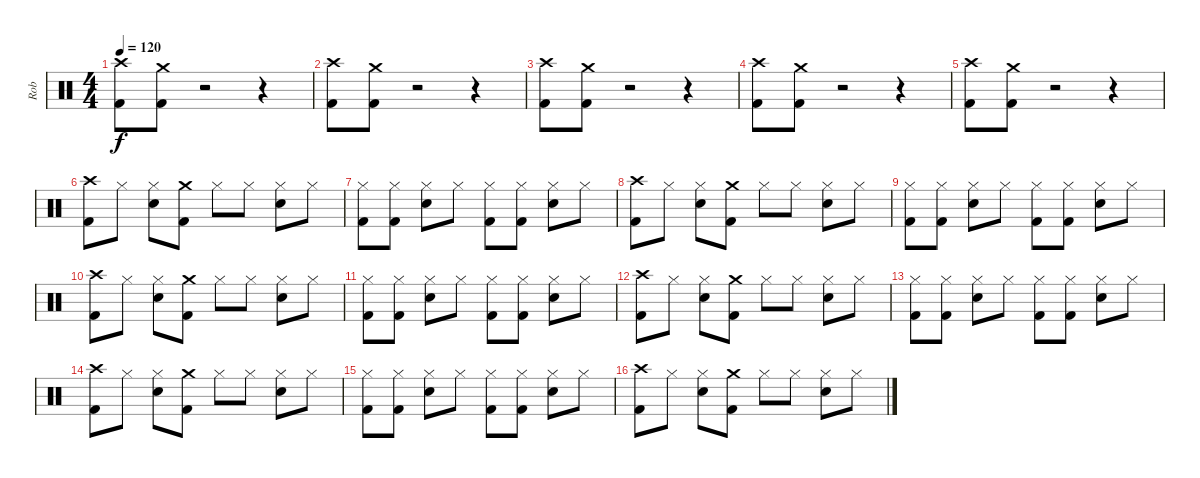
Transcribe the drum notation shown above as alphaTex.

\track ("Rob" "Rob") {instrument percussion}
\staff {score}
\articulation defaults
\ts (4 4)
\tempo 120
\clef neutral
\ks c
("Crash high (hit)" "Kick (hit) 2").8{dy f} ("Crash medium (hit)" "Kick (hit) 2").8 r.2 r.4 |
("Crash high (hit)" "Kick (hit) 2").8 ("Crash medium (hit)" "Kick (hit) 2").8 r.2 r.4 |
("Crash high (hit)" "Kick (hit) 2").8 ("Crash medium (hit)" "Kick (hit) 2").8 r.2 r.4 |
("Crash high (hit)" "Kick (hit) 2").8 ("Crash medium (hit)" "Kick (hit) 2").8 r.2 r.4 |
("Crash high (hit)" "Kick (hit) 2").8 ("Crash medium (hit)" "Kick (hit) 2").8 r.2 r.4 |
("Crash high (hit)" "Kick (hit) 2").8 "Hi-Hat (closed)".8 ("Hi-Hat (closed)" "Electric Snare (hit)").8 ("Crash medium (hit)" "Kick (hit) 2").8 "Hi-Hat (closed)".8 "Hi-Hat (closed)".8 ("Hi-Hat (closed)" "Electric Snare (hit)").8 "Hi-Hat (closed)".8 |
("Hi-Hat (closed)" "Kick (hit) 2").8 ("Hi-Hat (closed)" "Kick (hit) 2").8 ("Hi-Hat (closed)" "Electric Snare (hit)").8 "Hi-Hat (closed)".8 ("Hi-Hat (closed)" "Kick (hit) 2").8 ("Hi-Hat (closed)" "Kick (hit) 2").8 ("Hi-Hat (closed)" "Electric Snare (hit)").8 "Hi-Hat (closed)".8 |
("Crash high (hit)" "Kick (hit) 2").8 "Hi-Hat (closed)".8 ("Hi-Hat (closed)" "Electric Snare (hit)").8 ("Crash medium (hit)" "Kick (hit) 2").8 "Hi-Hat (closed)".8 "Hi-Hat (closed)".8 ("Hi-Hat (closed)" "Electric Snare (hit)").8 "Hi-Hat (closed)".8 |
("Hi-Hat (closed)" "Kick (hit) 2").8 ("Hi-Hat (closed)" "Kick (hit) 2").8 ("Hi-Hat (closed)" "Electric Snare (hit)").8 "Hi-Hat (closed)".8 ("Hi-Hat (closed)" "Kick (hit) 2").8 ("Hi-Hat (closed)" "Kick (hit) 2").8 ("Hi-Hat (closed)" "Electric Snare (hit)").8 "Hi-Hat (closed)".8 |
("Crash high (hit)" "Kick (hit) 2").8 "Hi-Hat (closed)".8 ("Hi-Hat (closed)" "Electric Snare (hit)").8 ("Crash medium (hit)" "Kick (hit) 2").8 "Hi-Hat (closed)".8 "Hi-Hat (closed)".8 ("Hi-Hat (closed)" "Electric Snare (hit)").8 "Hi-Hat (closed)".8 |
("Hi-Hat (closed)" "Kick (hit) 2").8 ("Hi-Hat (closed)" "Kick (hit) 2").8 ("Hi-Hat (closed)" "Electric Snare (hit)").8 "Hi-Hat (closed)".8 ("Hi-Hat (closed)" "Kick (hit) 2").8 ("Hi-Hat (closed)" "Kick (hit) 2").8 ("Hi-Hat (closed)" "Electric Snare (hit)").8 "Hi-Hat (closed)".8 |
("Crash high (hit)" "Kick (hit) 2").8 "Hi-Hat (closed)".8 ("Hi-Hat (closed)" "Electric Snare (hit)").8 ("Crash medium (hit)" "Kick (hit) 2").8 "Hi-Hat (closed)".8 "Hi-Hat (closed)".8 ("Hi-Hat (closed)" "Electric Snare (hit)").8 "Hi-Hat (closed)".8 |
("Hi-Hat (closed)" "Kick (hit) 2").8 ("Hi-Hat (closed)" "Kick (hit) 2").8 ("Hi-Hat (closed)" "Electric Snare (hit)").8 "Hi-Hat (closed)".8 ("Hi-Hat (closed)" "Kick (hit) 2").8 ("Hi-Hat (closed)" "Kick (hit) 2").8 ("Hi-Hat (closed)" "Electric Snare (hit)").8 "Hi-Hat (closed)".8 |
("Crash high (hit)" "Kick (hit) 2").8 "Hi-Hat (closed)".8 ("Hi-Hat (closed)" "Electric Snare (hit)").8 ("Crash medium (hit)" "Kick (hit) 2").8 "Hi-Hat (closed)".8 "Hi-Hat (closed)".8 ("Hi-Hat (closed)" "Electric Snare (hit)").8 "Hi-Hat (closed)".8 |
("Hi-Hat (closed)" "Kick (hit) 2").8 ("Hi-Hat (closed)" "Kick (hit) 2").8 ("Hi-Hat (closed)" "Electric Snare (hit)").8 "Hi-Hat (closed)".8 ("Hi-Hat (closed)" "Kick (hit) 2").8 ("Hi-Hat (closed)" "Kick (hit) 2").8 ("Hi-Hat (closed)" "Electric Snare (hit)").8 "Hi-Hat (closed)".8 |
("Crash high (hit)" "Kick (hit) 2").8 "Hi-Hat (closed)".8 ("Hi-Hat (closed)" "Electric Snare (hit)").8 ("Crash medium (hit)" "Kick (hit) 2").8 "Hi-Hat (closed)".8 "Hi-Hat (closed)".8 ("Hi-Hat (closed)" "Electric Snare (hit)").8 "Hi-Hat (closed)".8
